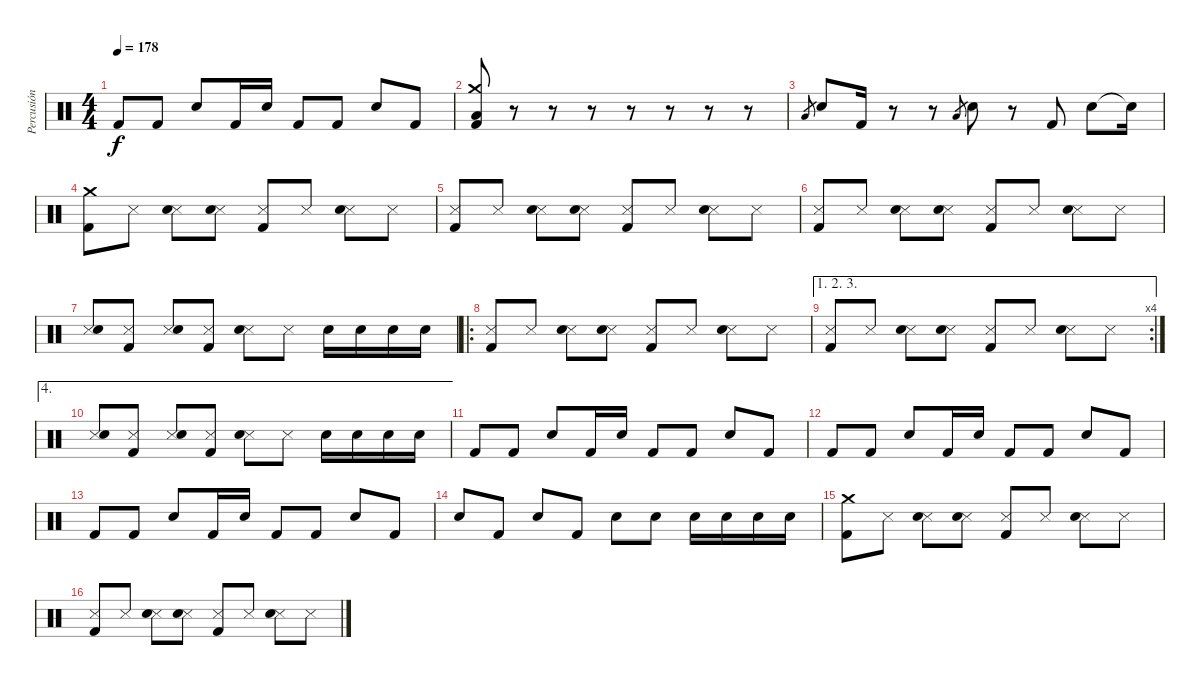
\track ("Percusión" "Percusión") {instrument percussion}
\staff {score}
\articulation defaults
\ts (4 4)
\tempo 178
\clef neutral
\ks c "Kick (hit) 2".8{dy f} "Kick (hit) 2".8 "Electric Snare (hit)".8 "Kick (hit) 2".16 "Electric Snare (hit)".16 "Kick (hit) 2".8 "Kick (hit) 2".8 "Electric Snare (hit)".8 "Kick (hit) 2".8
|
("Crash medium (hit)" "Low Floor Tom (hit)" "Kick (hit) 2").8 r.8 r.8 r.8 r.8 r.8 r.8 r.8 |
"Low Floor Tom (hit)".8{gr} "Electric Snare (hit)".8 "Kick (hit) 2".16 r.8 r.8 "Low Floor Tom (hit)".8{gr} "Electric Snare (hit)".8 r.8 "Kick (hit) 2".8 "Electric Snare (hit)".8 "Snare (hit)"{t}.16 |
("Crash medium (hit)" "Kick (hit) 2").8 "Snare (side stick) 3".8 ("Snare (side stick) 3" "Electric Snare (hit)").8 ("Snare (side stick) 3" "Electric Snare (hit)").8 ("Snare (side stick) 3" "Kick (hit) 2").8 "Snare (side stick) 3".8 ("Snare (side stick) 3" "Electric Snare (hit)").8 "Snare (side stick) 3".8 |
("Snare (side stick) 3" "Kick (hit) 2").8 "Snare (side stick) 3".8 ("Snare (side stick) 3" "Electric Snare (hit)").8 ("Snare (side stick) 3" "Electric Snare (hit)").8 ("Snare (side stick) 3" "Kick (hit) 2").8 "Snare (side stick) 3".8 ("Snare (side stick) 3" "Electric Snare (hit)").8 "Snare (side stick) 3".8 |
("Snare (side stick) 3" "Kick (hit) 2").8 "Snare (side stick) 3".8 ("Snare (side stick) 3" "Electric Snare (hit)").8 ("Snare (side stick) 3" "Electric Snare (hit)").8 ("Snare (side stick) 3" "Kick (hit) 2").8 "Snare (side stick) 3".8 ("Snare (side stick) 3" "Electric Snare (hit)").8 "Snare (side stick) 3".8 |
("Snare (side stick) 3" "Electric Snare (hit)").8 ("Snare (side stick) 3" "Kick (hit) 2").8 ("Snare (side stick) 3" "Electric Snare (hit)").8 ("Snare (side stick) 3" "Kick (hit) 2").8 ("Snare (side stick) 3" "Electric Snare (hit)").8 "Snare (side stick) 3".8 "Electric Snare (hit)".16 "Electric Snare (hit)".16 "Electric Snare (hit)".16 "Electric Snare (hit)".16 |
\ro
("Snare (side stick) 3" "Kick (hit) 2").8 "Snare (side stick) 3".8 ("Snare (side stick) 3" "Electric Snare (hit)").8 ("Snare (side stick) 3" "Electric Snare (hit)").8 ("Snare (side stick) 3" "Kick (hit) 2").8 "Snare (side stick) 3".8 ("Snare (side stick) 3" "Electric Snare (hit)").8 "Snare (side stick) 3".8 |
\ae (1 2 3)
\rc 4
("Snare (side stick) 3" "Kick (hit) 2").8 "Snare (side stick) 3".8 ("Snare (side stick) 3" "Electric Snare (hit)").8 ("Snare (side stick) 3" "Electric Snare (hit)").8 ("Snare (side stick) 3" "Kick (hit) 2").8 "Snare (side stick) 3".8 ("Snare (side stick) 3" "Electric Snare (hit)").8 "Snare (side stick) 3".8 |
\ae 4
("Snare (side stick) 3" "Electric Snare (hit)").8 ("Snare (side stick) 3" "Kick (hit) 2").8 ("Snare (side stick) 3" "Electric Snare (hit)").8 ("Snare (side stick) 3" "Kick (hit) 2").8 ("Snare (side stick) 3" "Electric Snare (hit)").8 "Snare (side stick) 3".8 "Electric Snare (hit)".16 "Electric Snare (hit)".16 "Electric Snare (hit)".16 "Electric Snare (hit)".16 |
"Kick (hit) 2".8 "Kick (hit) 2".8 "Electric Snare (hit)".8 "Kick (hit) 2".16 "Electric Snare (hit)".16 "Kick (hit) 2".8 "Kick (hit) 2".8 "Electric Snare (hit)".8 "Kick (hit) 2".8 |
"Kick (hit) 2".8 "Kick (hit) 2".8 "Electric Snare (hit)".8 "Kick (hit) 2".16 "Electric Snare (hit)".16 "Kick (hit) 2".8 "Kick (hit) 2".8 "Electric Snare (hit)".8 "Kick (hit) 2".8 |
"Kick (hit) 2".8 "Kick (hit) 2".8 "Electric Snare (hit)".8 "Kick (hit) 2".16 "Electric Snare (hit)".16 "Kick (hit) 2".8 "Kick (hit) 2".8 "Electric Snare (hit)".8 "Kick (hit) 2".8 |
"Electric Snare (hit)".8 "Kick (hit) 2".8 "Electric Snare (hit)".8 "Kick (hit) 2".8 "Electric Snare (hit)".8 "Electric Snare (hit)".8 "Electric Snare (hit)".16 "Electric Snare (hit)".16 "Electric Snare (hit)".16 "Electric Snare (hit)".16 |
("Crash medium (hit)" "Kick (hit) 2").8 "Snare (side stick) 3".8 ("Snare (side stick) 3" "Electric Snare (hit)").8 ("Snare (side stick) 3" "Electric Snare (hit)").8 ("Snare (side stick) 3" "Kick (hit) 2").8 "Snare (side stick) 3".8 ("Snare (side stick) 3" "Electric Snare (hit)").8 "Snare (side stick) 3".8 |
("Snare (side stick) 3" "Kick (hit) 2").8 "Snare (side stick) 3".8 ("Snare (side stick) 3" "Electric Snare (hit)").8 ("Snare (side stick) 3" "Electric Snare (hit)").8 ("Snare (side stick) 3" "Kick (hit) 2").8 "Snare (side stick) 3".8 ("Snare (side stick) 3" "Electric Snare (hit)").8 "Snare (side stick) 3".8
